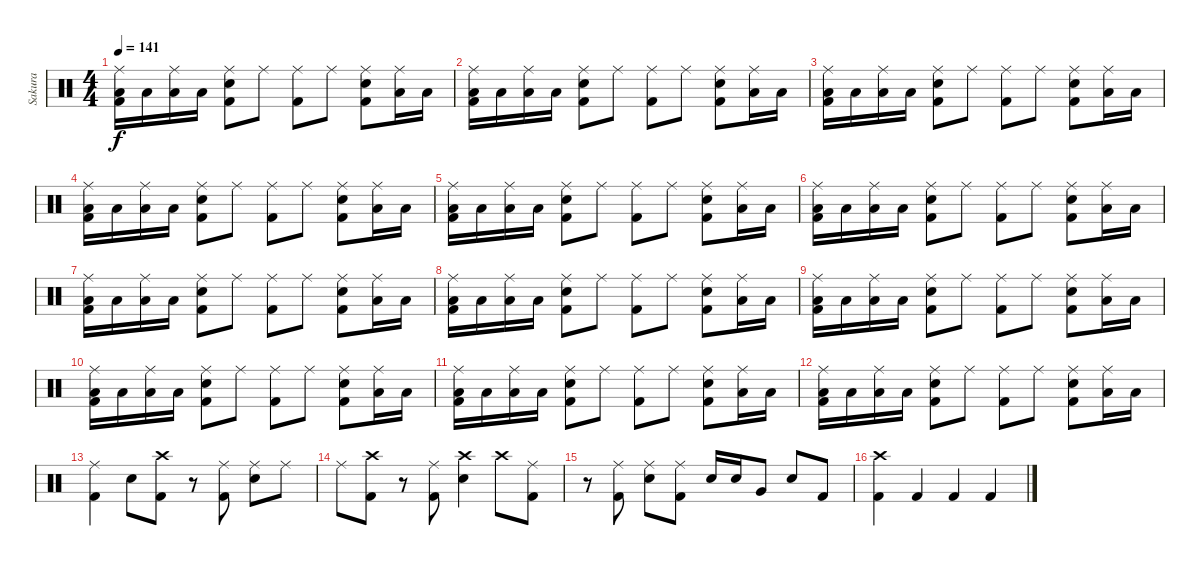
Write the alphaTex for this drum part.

\track ("Sakura" "Sakura") {instrument percussion}
\staff {score}
\articulation defaults
\ts (4 4)
\tempo 141
\clef neutral
\ks c
("Ride (middle)" "Low Tom (hit)" "Kick (hit) 2").16{dy f} "Low Tom (hit)".16 ("Ride (middle)" "Low Floor Tom (hit)").16 "Low Floor Tom (hit)".16 ("Ride (middle)" "Snare (hit) 2" "Kick (hit) 2").8 "Ride (middle)".8 ("Ride (middle)" "Kick (hit) 2").8 "Ride (middle)".8 ("Ride (middle)" "Snare (hit) 2" "Kick (hit) 2").8 ("Ride (middle)" "Low Tom (hit)").16 "Low Tom (hit)".16 |
("Ride (middle)" "Low Tom (hit)" "Kick (hit) 2").16 "Low Tom (hit)".16 ("Ride (middle)" "Low Floor Tom (hit)").16 "Low Floor Tom (hit)".16 ("Ride (middle)" "Snare (hit) 2" "Kick (hit) 2").8 "Ride (middle)".8 ("Ride (middle)" "Kick (hit) 2").8 "Ride (middle)".8 ("Ride (middle)" "Snare (hit) 2" "Kick (hit) 2").8 ("Ride (middle)" "Low Tom (hit)").16 "Low Tom (hit)".16 |
("Ride (middle)" "Low Tom (hit)" "Kick (hit) 2").16 "Low Tom (hit)".16 ("Ride (middle)" "Low Floor Tom (hit)").16 "Low Floor Tom (hit)".16 ("Ride (middle)" "Snare (hit) 2" "Kick (hit) 2").8 "Ride (middle)".8 ("Ride (middle)" "Kick (hit) 2").8 "Ride (middle)".8 ("Ride (middle)" "Snare (hit) 2" "Kick (hit) 2").8 ("Ride (middle)" "Low Tom (hit)").16 "Low Tom (hit)".16 |
("Ride (middle)" "Low Tom (hit)" "Kick (hit) 2").16 "Low Tom (hit)".16 ("Ride (middle)" "Low Floor Tom (hit)").16 "Low Floor Tom (hit)".16 ("Ride (middle)" "Snare (hit) 2" "Kick (hit) 2").8 "Ride (middle)".8 ("Ride (middle)" "Kick (hit) 2").8 "Ride (middle)".8 ("Ride (middle)" "Snare (hit) 2" "Kick (hit) 2").8 ("Ride (middle)" "Low Tom (hit)").16 "Low Tom (hit)".16 |
("Ride (middle)" "Low Tom (hit)" "Kick (hit) 2").16 "Low Tom (hit)".16 ("Ride (middle)" "Low Floor Tom (hit)").16 "Low Floor Tom (hit)".16 ("Ride (middle)" "Snare (hit) 2" "Kick (hit) 2").8 "Ride (middle)".8 ("Ride (middle)" "Kick (hit) 2").8 "Ride (middle)".8 ("Ride (middle)" "Snare (hit) 2" "Kick (hit) 2").8 ("Ride (middle)" "Low Tom (hit)").16 "Low Tom (hit)".16 |
("Ride (middle)" "Low Tom (hit)" "Kick (hit) 2").16 "Low Tom (hit)".16 ("Ride (middle)" "Low Floor Tom (hit)").16 "Low Floor Tom (hit)".16 ("Ride (middle)" "Snare (hit) 2" "Kick (hit) 2").8 "Ride (middle)".8 ("Ride (middle)" "Kick (hit) 2").8 "Ride (middle)".8 ("Ride (middle)" "Snare (hit) 2" "Kick (hit) 2").8 ("Ride (middle)" "Low Tom (hit)").16 "Low Tom (hit)".16 |
("Ride (middle)" "Low Tom (hit)" "Kick (hit) 2").16 "Low Tom (hit)".16 ("Ride (middle)" "Low Floor Tom (hit)").16 "Low Floor Tom (hit)".16 ("Ride (middle)" "Snare (hit) 2" "Kick (hit) 2").8 "Ride (middle)".8 ("Ride (middle)" "Kick (hit) 2").8 "Ride (middle)".8 ("Ride (middle)" "Snare (hit) 2" "Kick (hit) 2").8 ("Ride (middle)" "Low Tom (hit)").16 "Low Tom (hit)".16 |
("Ride (middle)" "Low Tom (hit)" "Kick (hit) 2").16 "Low Tom (hit)".16 ("Ride (middle)" "Low Floor Tom (hit)").16 "Low Floor Tom (hit)".16 ("Ride (middle)" "Snare (hit) 2" "Kick (hit) 2").8 "Ride (middle)".8 ("Ride (middle)" "Kick (hit) 2").8 "Ride (middle)".8 ("Ride (middle)" "Snare (hit) 2" "Kick (hit) 2").8 ("Ride (middle)" "Low Tom (hit)").16 "Low Tom (hit)".16 |
("Ride (middle)" "Low Tom (hit)" "Kick (hit) 2").16 "Low Tom (hit)".16 ("Ride (middle)" "Low Floor Tom (hit)").16 "Low Floor Tom (hit)".16 ("Ride (middle)" "Snare (hit) 2" "Kick (hit) 2").8 "Ride (middle)".8 ("Ride (middle)" "Kick (hit) 2").8 "Ride (middle)".8 ("Ride (middle)" "Snare (hit) 2" "Kick (hit) 2").8 ("Ride (middle)" "Low Tom (hit)").16 "Low Tom (hit)".16 |
("Ride (middle)" "Low Tom (hit)" "Kick (hit) 2").16 "Low Tom (hit)".16 ("Ride (middle)" "Low Floor Tom (hit)").16 "Low Floor Tom (hit)".16 ("Ride (middle)" "Snare (hit) 2" "Kick (hit) 2").8 "Ride (middle)".8 ("Ride (middle)" "Kick (hit) 2").8 "Ride (middle)".8 ("Ride (middle)" "Snare (hit) 2" "Kick (hit) 2").8 ("Ride (middle)" "Low Tom (hit)").16 "Low Tom (hit)".16 |
("Ride (middle)" "Low Tom (hit)" "Kick (hit) 2").16 "Low Tom (hit)".16 ("Ride (middle)" "Low Floor Tom (hit)").16 "Low Floor Tom (hit)".16 ("Ride (middle)" "Snare (hit) 2" "Kick (hit) 2").8 "Ride (middle)".8 ("Ride (middle)" "Kick (hit) 2").8 "Ride (middle)".8 ("Ride (middle)" "Snare (hit) 2" "Kick (hit) 2").8 ("Ride (middle)" "Low Tom (hit)").16 "Low Tom (hit)".16 |
("Ride (middle)" "Low Tom (hit)" "Kick (hit) 2").16 "Low Tom (hit)".16 ("Ride (middle)" "Low Floor Tom (hit)").16 "Low Floor Tom (hit)".16 ("Ride (middle)" "Snare (hit) 2" "Kick (hit) 2").8 "Ride (middle)".8 ("Ride (middle)" "Kick (hit) 2").8 "Ride (middle)".8 ("Ride (middle)" "Snare (hit) 2" "Kick (hit) 2").8 ("Ride (middle)" "Low Tom (hit)").16 "Low Tom (hit)".16 |
("Ride (middle)" "Kick (hit) 2").4 "Snare (hit) 2".8 ("Crash high (hit)" "Kick (hit) 2").8 r.8 ("Ride (middle)" "Kick (hit) 2").8 ("Ride (middle)" "Snare (hit) 2").8 "Ride (middle)".8 |
"Ride (middle)".8 ("Crash high (hit)" "Kick (hit) 2").8 r.8 ("Ride (middle)" "Kick (hit) 2").8 ("Crash high (hit)" "Snare (hit) 2").4 "Crash high (hit)".8 ("Ride (middle)" "Kick (hit) 2").8 |
r.8 ("Ride (middle)" "Kick (hit) 2").8 ("Ride (middle)" "Snare (hit) 2").8 ("Ride (middle)" "Kick (hit) 2").8 "Snare (hit) 2".16 "Snare (hit) 2".16 "Very Low Tom (hit)".8 "Snare (hit) 2".8 "Kick (hit) 2".8 |
("Crash high (hit)" "Kick (hit) 2").4 "Kick (hit) 2".4 "Kick (hit) 2".4 "Kick (hit) 2".4
